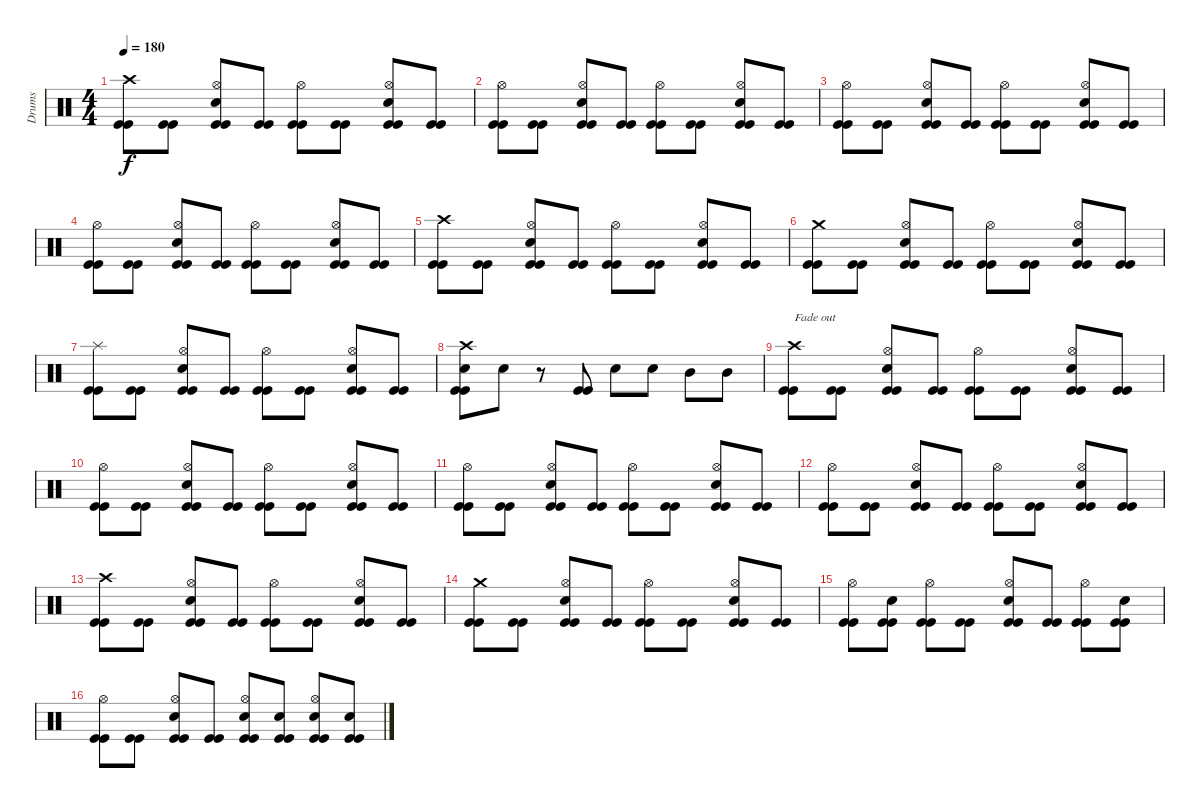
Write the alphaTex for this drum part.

\track ("Drums" "Drums") {instrument percussion}
\staff {score}
\articulation defaults
\ts (4 4)
\tempo 180
\clef neutral
\ks c
("Crash high (hit)" "Kick (hit)" "Kick (hit)").8{dy f} ("Kick (hit)" "Kick (hit)").8 ("Hi-Hat (open)" "Kick (hit)" "Kick (hit)" "Snare (hit) 2").8 ("Kick (hit)" "Kick (hit)").8 ("Hi-Hat (open)" "Kick (hit)" "Kick (hit)").8 ("Kick (hit)" "Kick (hit)").8 ("Hi-Hat (open)" "Kick (hit)" "Kick (hit)" "Snare (hit) 2").8 ("Kick (hit)" "Kick (hit)").8 |
("Hi-Hat (open)" "Kick (hit)" "Kick (hit)").8 ("Kick (hit)" "Kick (hit)").8 ("Hi-Hat (open)" "Kick (hit)" "Kick (hit)" "Snare (hit) 2").8 ("Kick (hit)" "Kick (hit)").8 ("Hi-Hat (open)" "Kick (hit)" "Kick (hit)").8 ("Kick (hit)" "Kick (hit)").8 ("Hi-Hat (open)" "Kick (hit)" "Kick (hit)" "Snare (hit) 2").8 ("Kick (hit)" "Kick (hit)").8 |
("Hi-Hat (open)" "Kick (hit)" "Kick (hit)").8 ("Kick (hit)" "Kick (hit)").8 ("Hi-Hat (open)" "Kick (hit)" "Kick (hit)" "Snare (hit) 2").8 ("Kick (hit)" "Kick (hit)").8 ("Hi-Hat (open)" "Kick (hit)" "Kick (hit)").8 ("Kick (hit)" "Kick (hit)").8 ("Hi-Hat (open)" "Kick (hit)" "Kick (hit)" "Snare (hit) 2").8 ("Kick (hit)" "Kick (hit)").8 |
("Hi-Hat (open)" "Kick (hit)" "Kick (hit)").8 ("Kick (hit)" "Kick (hit)").8 ("Hi-Hat (open)" "Kick (hit)" "Kick (hit)" "Snare (hit) 2").8 ("Kick (hit)" "Kick (hit)").8 ("Hi-Hat (open)" "Kick (hit)" "Kick (hit)").8 ("Kick (hit)" "Kick (hit)").8 ("Hi-Hat (open)" "Kick (hit)" "Kick (hit)" "Snare (hit) 2").8 ("Kick (hit)" "Kick (hit)").8 |
("Crash high (hit)" "Kick (hit)" "Kick (hit)").8 ("Kick (hit)" "Kick (hit)").8 ("Hi-Hat (open)" "Kick (hit)" "Kick (hit)" "Snare (hit) 2").8 ("Kick (hit)" "Kick (hit)").8 ("Hi-Hat (open)" "Kick (hit)" "Kick (hit)").8 ("Kick (hit)" "Kick (hit)").8 ("Hi-Hat (open)" "Kick (hit)" "Kick (hit)" "Snare (hit) 2").8 ("Kick (hit)" "Kick (hit)").8 |
("Crash medium (hit)" "Kick (hit)" "Kick (hit)").8 ("Kick (hit)" "Kick (hit)").8 ("Hi-Hat (open)" "Kick (hit)" "Kick (hit)" "Snare (hit) 2").8 ("Kick (hit)" "Kick (hit)").8 ("Hi-Hat (open)" "Kick (hit)" "Kick (hit)").8 ("Kick (hit)" "Kick (hit)").8 ("Hi-Hat (open)" "Kick (hit)" "Kick (hit)" "Snare (hit) 2").8 ("Kick (hit)" "Kick (hit)").8 |
("Splash (hit)" "Kick (hit)" "Kick (hit)").8 ("Kick (hit)" "Kick (hit)").8 ("Hi-Hat (open)" "Kick (hit)" "Kick (hit)" "Snare (hit) 2").8 ("Kick (hit)" "Kick (hit)").8 ("Hi-Hat (open)" "Kick (hit)" "Kick (hit)").8 ("Kick (hit)" "Kick (hit)").8 ("Hi-Hat (open)" "Kick (hit)" "Kick (hit)" "Snare (hit) 2").8 ("Kick (hit)" "Kick (hit)").8 |
("Crash high (hit)" "Snare (hit) 2" "Kick (hit)" "Kick (hit)").8 "Snare (hit) 2".8 r.8 ("Kick (hit)" "Kick (hit)").8 "Snare (hit) 2".8 "Snare (hit) 2".8 "Mid Tom (hit)".8 "Mid Tom (hit)".8 |
("Crash high (hit)" "Kick (hit)" "Kick (hit)").8{txt "Fade out" volume 12} ("Kick (hit)" "Kick (hit)").8 ("Hi-Hat (open)" "Kick (hit)" "Kick (hit)" "Snare (hit) 2").8 ("Kick (hit)" "Kick (hit)").8 ("Hi-Hat (open)" "Kick (hit)" "Kick (hit)").8 ("Kick (hit)" "Kick (hit)").8 ("Hi-Hat (open)" "Kick (hit)" "Kick (hit)" "Snare (hit) 2").8 ("Kick (hit)" "Kick (hit)").8 |
("Hi-Hat (open)" "Kick (hit)" "Kick (hit)").8 ("Kick (hit)" "Kick (hit)").8 ("Hi-Hat (open)" "Kick (hit)" "Kick (hit)" "Snare (hit) 2").8 ("Kick (hit)" "Kick (hit)").8 ("Hi-Hat (open)" "Kick (hit)" "Kick (hit)").8 ("Kick (hit)" "Kick (hit)").8 ("Hi-Hat (open)" "Kick (hit)" "Kick (hit)" "Snare (hit) 2").8 ("Kick (hit)" "Kick (hit)").8 |
("Hi-Hat (open)" "Kick (hit)" "Kick (hit)").8{volume 11} ("Kick (hit)" "Kick (hit)").8 ("Hi-Hat (open)" "Kick (hit)" "Kick (hit)" "Snare (hit) 2").8 ("Kick (hit)" "Kick (hit)").8 ("Hi-Hat (open)" "Kick (hit)" "Kick (hit)").8 ("Kick (hit)" "Kick (hit)").8 ("Hi-Hat (open)" "Kick (hit)" "Kick (hit)" "Snare (hit) 2").8 ("Kick (hit)" "Kick (hit)").8 |
("Hi-Hat (open)" "Kick (hit)" "Kick (hit)").8 ("Kick (hit)" "Kick (hit)").8 ("Hi-Hat (open)" "Kick (hit)" "Kick (hit)" "Snare (hit) 2").8 ("Kick (hit)" "Kick (hit)").8 ("Hi-Hat (open)" "Kick (hit)" "Kick (hit)").8 ("Kick (hit)" "Kick (hit)").8 ("Hi-Hat (open)" "Kick (hit)" "Kick (hit)" "Snare (hit) 2").8 ("Kick (hit)" "Kick (hit)").8 |
("Crash high (hit)" "Kick (hit)" "Kick (hit)").8{volume 10} ("Kick (hit)" "Kick (hit)").8 ("Hi-Hat (open)" "Kick (hit)" "Kick (hit)" "Snare (hit) 2").8 ("Kick (hit)" "Kick (hit)").8 ("Hi-Hat (open)" "Kick (hit)" "Kick (hit)").8 ("Kick (hit)" "Kick (hit)").8 ("Hi-Hat (open)" "Kick (hit)" "Kick (hit)" "Snare (hit) 2").8 ("Kick (hit)" "Kick (hit)").8 |
("Crash medium (hit)" "Kick (hit)" "Kick (hit)").8 ("Kick (hit)" "Kick (hit)").8 ("Hi-Hat (open)" "Kick (hit)" "Kick (hit)" "Snare (hit) 2").8 ("Kick (hit)" "Kick (hit)").8 ("Hi-Hat (open)" "Kick (hit)" "Kick (hit)").8 ("Kick (hit)" "Kick (hit)").8 ("Hi-Hat (open)" "Kick (hit)" "Kick (hit)" "Snare (hit) 2").8 ("Kick (hit)" "Kick (hit)").8 |
("Hi-Hat (open)" "Kick (hit)" "Kick (hit)").8{volume 9} ("Kick (hit)" "Kick (hit)" "Snare (hit) 2").8 ("Hi-Hat (open)" "Kick (hit)" "Kick (hit)").8 ("Kick (hit)" "Kick (hit)").8 ("Hi-Hat (open)" "Kick (hit)" "Kick (hit)" "Snare (hit) 2").8 ("Kick (hit)" "Kick (hit)").8 ("Hi-Hat (open)" "Kick (hit)" "Kick (hit)").8 ("Kick (hit)" "Kick (hit)" "Snare (hit) 2").8 |
("Hi-Hat (open)" "Kick (hit)" "Kick (hit)").8 ("Kick (hit)" "Kick (hit)").8 ("Hi-Hat (open)" "Kick (hit)" "Kick (hit)" "Snare (hit) 2").8 ("Kick (hit)" "Kick (hit)").8 ("Hi-Hat (open)" "Kick (hit)" "Kick (hit)" "Snare (hit) 2").8 ("Kick (hit)" "Kick (hit)" "Snare (hit) 2").8 ("Hi-Hat (open)" "Kick (hit)" "Kick (hit)" "Snare (hit) 2").8 ("Kick (hit)" "Kick (hit)" "Snare (hit) 2").8
